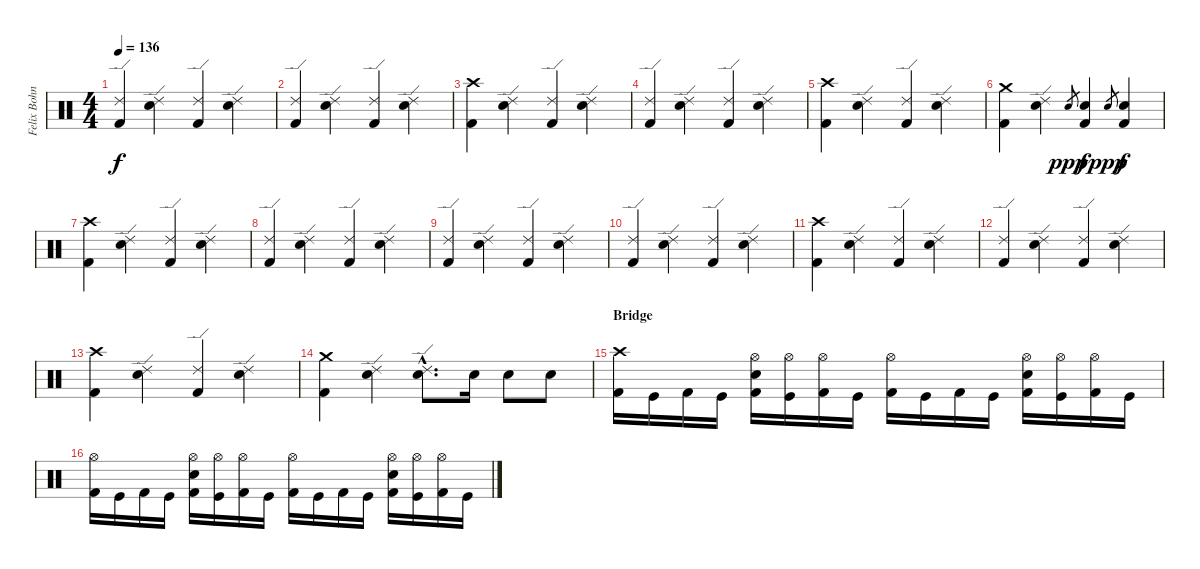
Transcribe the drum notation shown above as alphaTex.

\track ("Felix Bohnke" "Felix Bohn") {instrument percussion}
\staff {score}
\articulation defaults
\ts (4 4)
\tempo 136
\clef neutral
\ks c
("Ride (edge) 2" "Kick (hit) 2").4{dy f} ("Ride (edge) 2" "Snare (hit) 2").4 ("Ride (edge) 2" "Kick (hit) 2").4 ("Ride (edge) 2" "Snare (hit) 2").4 |
("Ride (edge) 2" "Kick (hit) 2").4 ("Ride (edge) 2" "Snare (hit) 2").4 ("Ride (edge) 2" "Kick (hit) 2").4 ("Ride (edge) 2" "Snare (hit) 2").4 |
("Crash high (hit)" "Kick (hit) 2").4 ("Ride (edge) 2" "Snare (hit) 2").4 ("Ride (edge) 2" "Kick (hit) 2").4 ("Ride (edge) 2" "Snare (hit) 2").4 |
("Ride (edge) 2" "Kick (hit) 2").4 ("Ride (edge) 2" "Snare (hit) 2").4 ("Ride (edge) 2" "Kick (hit) 2").4 ("Ride (edge) 2" "Snare (hit) 2").4 |
("Crash high (hit)" "Kick (hit) 2").4 ("Ride (edge) 2" "Snare (hit) 2").4 ("Ride (edge) 2" "Kick (hit) 2").4 ("Ride (edge) 2" "Snare (hit) 2").4 |
("Crash medium (hit)" "Kick (hit) 2").4 ("Ride (edge) 2" "Snare (hit) 2").4 "Snare (hit) 2".8{gr dy ppp} ("Snare (hit) 2" "Kick (hit) 2").4{dy f} "Snare (hit) 2".8{gr dy ppp} ("Snare (hit) 2" "Kick (hit) 2").4{dy f} |
("Crash high (hit)" "Kick (hit) 2").4 ("Ride (edge) 2" "Snare (hit) 2").4 ("Ride (edge) 2" "Kick (hit) 2").4 ("Ride (edge) 2" "Snare (hit) 2").4 |
("Ride (edge) 2" "Kick (hit) 2").4 ("Ride (edge) 2" "Snare (hit) 2").4 ("Ride (edge) 2" "Kick (hit) 2").4 ("Ride (edge) 2" "Snare (hit) 2").4 |
("Ride (edge) 2" "Kick (hit) 2").4 ("Ride (edge) 2" "Snare (hit) 2").4 ("Ride (edge) 2" "Kick (hit) 2").4 ("Ride (edge) 2" "Snare (hit) 2").4 |
("Ride (edge) 2" "Kick (hit) 2").4 ("Ride (edge) 2" "Snare (hit) 2").4 ("Ride (edge) 2" "Kick (hit) 2").4 ("Ride (edge) 2" "Snare (hit) 2").4 |
("Crash high (hit)" "Kick (hit) 2").4 ("Ride (edge) 2" "Snare (hit) 2").4 ("Ride (edge) 2" "Kick (hit) 2").4 ("Ride (edge) 2" "Snare (hit) 2").4 |
("Ride (edge) 2" "Kick (hit) 2").4 ("Ride (edge) 2" "Snare (hit) 2").4 ("Ride (edge) 2" "Kick (hit) 2").4 ("Ride (edge) 2" "Snare (hit) 2").4 |
("Crash high (hit)" "Kick (hit) 2").4 ("Ride (edge) 2" "Snare (hit) 2").4 ("Ride (edge) 2" "Kick (hit) 2").4 ("Ride (edge) 2" "Snare (hit) 2").4 |
("Crash medium (hit)" "Kick (hit) 2").4 ("Ride (edge) 2" "Snare (hit) 2").4 ("Ride (edge) 2"{hac} "Snare (hit) 2"{hac}).8{d} "Snare (hit) 2".16 "Snare (hit) 2".8 "Snare (hit) 2".8 |
\section ("" "Bridge")
("Crash high (hit)" "Kick (hit) 2").16 "Kick (hit)".16 "Kick (hit) 2".16 "Kick (hit)".16 ("Hi-Hat (open)" "Snare (hit) 2" "Kick (hit) 2").16 ("Hi-Hat (open)" "Kick (hit)").16 ("Hi-Hat (open)" "Kick (hit) 2").16 "Kick (hit)".16 ("Hi-Hat (open)" "Kick (hit) 2").16 "Kick (hit)".16 "Kick (hit) 2".16 "Kick (hit)".16 ("Hi-Hat (open)" "Snare (hit) 2" "Kick (hit) 2").16 ("Hi-Hat (open)" "Kick (hit)").16 ("Hi-Hat (open)" "Kick (hit) 2").16 "Kick (hit)".16 |
("Hi-Hat (open)" "Kick (hit) 2").16 "Kick (hit)".16 "Kick (hit) 2".16 "Kick (hit)".16 ("Hi-Hat (open)" "Snare (hit) 2" "Kick (hit) 2").16 ("Hi-Hat (open)" "Kick (hit)").16 ("Hi-Hat (open)" "Kick (hit) 2").16 "Kick (hit)".16 ("Hi-Hat (open)" "Kick (hit) 2").16 "Kick (hit)".16 "Kick (hit) 2".16 "Kick (hit)".16 ("Hi-Hat (open)" "Snare (hit) 2" "Kick (hit) 2").16 ("Hi-Hat (open)" "Kick (hit)").16 ("Hi-Hat (open)" "Kick (hit) 2").16 "Kick (hit)".16
